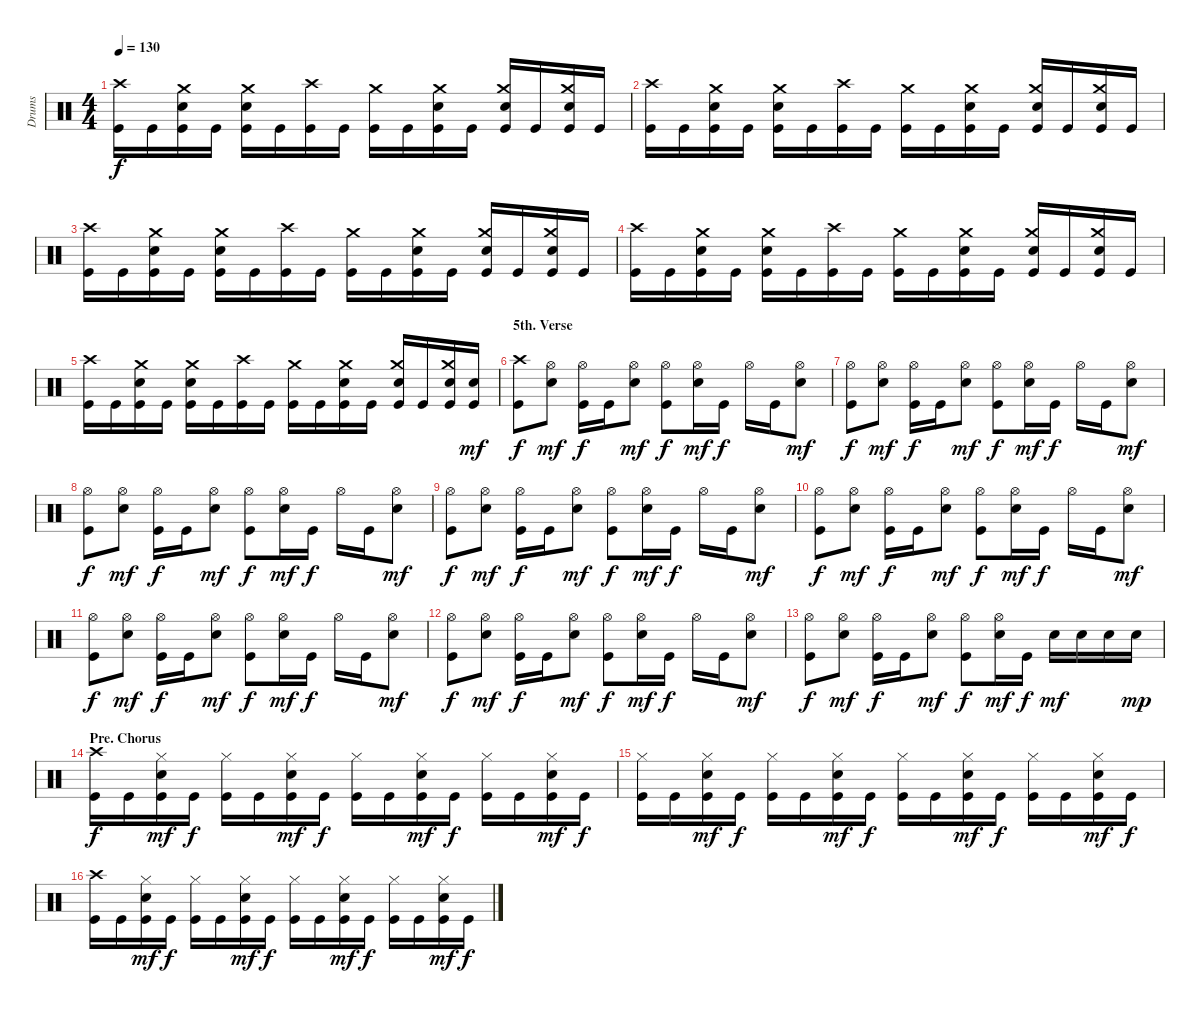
\track ("Drums" "Drums") {instrument percussion}
\staff {score}
\articulation defaults
\ts (4 4)
\tempo 130
\clef neutral
\ks c
("Crash high (hit)" "Kick (hit)").16{dy f} "Kick (hit)".16 ("Crash medium (hit)" "Snare (hit) 2" "Kick (hit)").16 "Kick (hit)".16 ("Crash medium (hit)" "Snare (hit) 2" "Kick (hit)").16 "Kick (hit)".16 ("Crash high (hit)" "Kick (hit)").16 "Kick (hit)".16 ("Crash medium (hit)" "Kick (hit)").16 "Kick (hit)".16 ("Crash medium (hit)" "Snare (hit) 2" "Kick (hit)").16 "Kick (hit)".16 ("Crash medium (hit)" "Snare (hit) 2" "Kick (hit)").16 "Kick (hit)".16 ("Crash medium (hit)" "Snare (hit) 2" "Kick (hit)").16 "Kick (hit)".16 |
("Crash high (hit)" "Kick (hit)").16 "Kick (hit)".16 ("Crash medium (hit)" "Snare (hit) 2" "Kick (hit)").16 "Kick (hit)".16 ("Crash medium (hit)" "Snare (hit) 2" "Kick (hit)").16 "Kick (hit)".16 ("Crash high (hit)" "Kick (hit)").16 "Kick (hit)".16 ("Crash medium (hit)" "Kick (hit)").16 "Kick (hit)".16 ("Crash medium (hit)" "Snare (hit) 2" "Kick (hit)").16 "Kick (hit)".16 ("Crash medium (hit)" "Snare (hit) 2" "Kick (hit)").16 "Kick (hit)".16 ("Crash medium (hit)" "Snare (hit) 2" "Kick (hit)").16 "Kick (hit)".16 |
("Crash high (hit)" "Kick (hit)").16 "Kick (hit)".16 ("Crash medium (hit)" "Snare (hit) 2" "Kick (hit)").16 "Kick (hit)".16 ("Crash medium (hit)" "Snare (hit) 2" "Kick (hit)").16 "Kick (hit)".16 ("Crash high (hit)" "Kick (hit)").16 "Kick (hit)".16 ("Crash medium (hit)" "Kick (hit)").16 "Kick (hit)".16 ("Crash medium (hit)" "Snare (hit) 2" "Kick (hit)").16 "Kick (hit)".16 ("Crash medium (hit)" "Snare (hit) 2" "Kick (hit)").16 "Kick (hit)".16 ("Crash medium (hit)" "Snare (hit) 2" "Kick (hit)").16 "Kick (hit)".16 |
("Crash high (hit)" "Kick (hit)").16 "Kick (hit)".16 ("Crash medium (hit)" "Snare (hit) 2" "Kick (hit)").16 "Kick (hit)".16 ("Crash medium (hit)" "Snare (hit) 2" "Kick (hit)").16 "Kick (hit)".16 ("Crash high (hit)" "Kick (hit)").16 "Kick (hit)".16 ("Crash medium (hit)" "Kick (hit)").16 "Kick (hit)".16 ("Crash medium (hit)" "Snare (hit) 2" "Kick (hit)").16 "Kick (hit)".16 ("Crash medium (hit)" "Snare (hit) 2" "Kick (hit)").16 "Kick (hit)".16 ("Crash medium (hit)" "Snare (hit) 2" "Kick (hit)").16 "Kick (hit)".16 |
("Crash high (hit)" "Kick (hit)").16 "Kick (hit)".16 ("Crash medium (hit)" "Snare (hit) 2" "Kick (hit)").16 "Kick (hit)".16 ("Crash medium (hit)" "Snare (hit) 2" "Kick (hit)").16 "Kick (hit)".16 ("Crash high (hit)" "Kick (hit)").16 "Kick (hit)".16 ("Crash medium (hit)" "Kick (hit)").16 "Kick (hit)".16 ("Crash medium (hit)" "Snare (hit) 2" "Kick (hit)").16 "Kick (hit)".16 ("Crash medium (hit)" "Snare (hit) 2" "Kick (hit)").16 "Kick (hit)".16 ("Crash medium (hit)" "Snare (hit) 2" "Kick (hit)").16 ("Snare (hit) 2" "Kick (hit)").16{dy mf} |
\section ("" "5th. Verse")
("Crash high (hit)" "Kick (hit)").8{dy f} ("Hi-Hat (open)" "Snare (hit) 2").8{dy mf} ("Hi-Hat (open)" "Kick (hit)").16{dy f} "Kick (hit)".16 ("Hi-Hat (open)" "Snare (hit) 2").8{dy mf} ("Hi-Hat (open)" "Kick (hit)").8{dy f} ("Hi-Hat (open)" "Snare (hit) 2").16{dy mf} "Kick (hit)".16{dy f} "Hi-Hat (open)".16 "Kick (hit)".16 ("Hi-Hat (open)" "Snare (hit) 2").8{dy mf} |
("Hi-Hat (open)" "Kick (hit)").8{dy f} ("Hi-Hat (open)" "Snare (hit) 2").8{dy mf} ("Hi-Hat (open)" "Kick (hit)").16{dy f} "Kick (hit)".16 ("Hi-Hat (open)" "Snare (hit) 2").8{dy mf} ("Hi-Hat (open)" "Kick (hit)").8{dy f} ("Hi-Hat (open)" "Snare (hit) 2").16{dy mf} "Kick (hit)".16{dy f} "Hi-Hat (open)".16 "Kick (hit)".16 ("Hi-Hat (open)" "Snare (hit) 2").8{dy mf} |
("Hi-Hat (open)" "Kick (hit)").8{dy f} ("Hi-Hat (open)" "Snare (hit) 2").8{dy mf} ("Hi-Hat (open)" "Kick (hit)").16{dy f} "Kick (hit)".16 ("Hi-Hat (open)" "Snare (hit) 2").8{dy mf} ("Hi-Hat (open)" "Kick (hit)").8{dy f} ("Hi-Hat (open)" "Snare (hit) 2").16{dy mf} "Kick (hit)".16{dy f} "Hi-Hat (open)".16 "Kick (hit)".16 ("Hi-Hat (open)" "Snare (hit) 2").8{dy mf} |
("Hi-Hat (open)" "Kick (hit)").8{dy f} ("Hi-Hat (open)" "Snare (hit) 2").8{dy mf} ("Hi-Hat (open)" "Kick (hit)").16{dy f} "Kick (hit)".16 ("Hi-Hat (open)" "Snare (hit) 2").8{dy mf} ("Hi-Hat (open)" "Kick (hit)").8{dy f} ("Hi-Hat (open)" "Snare (hit) 2").16{dy mf} "Kick (hit)".16{dy f} "Hi-Hat (open)".16 "Kick (hit)".16 ("Hi-Hat (open)" "Snare (hit) 2").8{dy mf} |
("Hi-Hat (open)" "Kick (hit)").8{dy f} ("Hi-Hat (open)" "Snare (hit) 2").8{dy mf} ("Hi-Hat (open)" "Kick (hit)").16{dy f} "Kick (hit)".16 ("Hi-Hat (open)" "Snare (hit) 2").8{dy mf} ("Hi-Hat (open)" "Kick (hit)").8{dy f} ("Hi-Hat (open)" "Snare (hit) 2").16{dy mf} "Kick (hit)".16{dy f} "Hi-Hat (open)".16 "Kick (hit)".16 ("Hi-Hat (open)" "Snare (hit) 2").8{dy mf} |
("Hi-Hat (open)" "Kick (hit)").8{dy f} ("Hi-Hat (open)" "Snare (hit) 2").8{dy mf} ("Hi-Hat (open)" "Kick (hit)").16{dy f} "Kick (hit)".16 ("Hi-Hat (open)" "Snare (hit) 2").8{dy mf} ("Hi-Hat (open)" "Kick (hit)").8{dy f} ("Hi-Hat (open)" "Snare (hit) 2").16{dy mf} "Kick (hit)".16{dy f} "Hi-Hat (open)".16 "Kick (hit)".16 ("Hi-Hat (open)" "Snare (hit) 2").8{dy mf} |
("Hi-Hat (open)" "Kick (hit)").8{dy f} ("Hi-Hat (open)" "Snare (hit) 2").8{dy mf} ("Hi-Hat (open)" "Kick (hit)").16{dy f} "Kick (hit)".16 ("Hi-Hat (open)" "Snare (hit) 2").8{dy mf} ("Hi-Hat (open)" "Kick (hit)").8{dy f} ("Hi-Hat (open)" "Snare (hit) 2").16{dy mf} "Kick (hit)".16{dy f} "Hi-Hat (open)".16 "Kick (hit)".16 ("Hi-Hat (open)" "Snare (hit) 2").8{dy mf} |
("Hi-Hat (open)" "Kick (hit)").8{dy f} ("Hi-Hat (open)" "Snare (hit) 2").8{dy mf} ("Hi-Hat (open)" "Kick (hit)").16{dy f} "Kick (hit)".16 ("Hi-Hat (open)" "Snare (hit) 2").8{dy mf} ("Hi-Hat (open)" "Kick (hit)").8{dy f} ("Hi-Hat (open)" "Snare (hit) 2").16{dy mf} "Kick (hit)".16{dy f} "Snare (hit) 2".16{dy mf} "Snare (hit) 2".16 "Snare (hit) 2".16 "Snare (hit) 2".16{dy mp} |
\section ("" "Pre. Chorus")
("Crash high (hit)" "Kick (hit)").16{dy f} "Kick (hit)".16 ("Hi-Hat (closed)" "Snare (hit) 2" "Kick (hit)").16{dy mf} "Kick (hit)".16{dy f} ("Hi-Hat (closed)" "Kick (hit)").16 "Kick (hit)".16 ("Hi-Hat (closed)" "Snare (hit) 2" "Kick (hit)").16{dy mf} "Kick (hit)".16{dy f} ("Hi-Hat (closed)" "Kick (hit)").16 "Kick (hit)".16 ("Hi-Hat (closed)" "Snare (hit) 2" "Kick (hit)").16{dy mf} "Kick (hit)".16{dy f} ("Hi-Hat (closed)" "Kick (hit)").16 "Kick (hit)".16 ("Hi-Hat (closed)" "Snare (hit) 2" "Kick (hit)").16{dy mf} "Kick (hit)".16{dy f} |
("Hi-Hat (closed)" "Kick (hit)").16 "Kick (hit)".16 ("Hi-Hat (closed)" "Snare (hit) 2" "Kick (hit)").16{dy mf} "Kick (hit)".16{dy f} ("Hi-Hat (closed)" "Kick (hit)").16 "Kick (hit)".16 ("Hi-Hat (closed)" "Snare (hit) 2" "Kick (hit)").16{dy mf} "Kick (hit)".16{dy f} ("Hi-Hat (closed)" "Kick (hit)").16 "Kick (hit)".16 ("Hi-Hat (closed)" "Snare (hit) 2" "Kick (hit)").16{dy mf} "Kick (hit)".16{dy f} ("Hi-Hat (closed)" "Kick (hit)").16 "Kick (hit)".16 ("Hi-Hat (closed)" "Snare (hit) 2" "Kick (hit)").16{dy mf} "Kick (hit)".16{dy f} |
("Crash high (hit)" "Kick (hit)").16 "Kick (hit)".16 ("Hi-Hat (closed)" "Snare (hit) 2" "Kick (hit)").16{dy mf} "Kick (hit)".16{dy f} ("Hi-Hat (closed)" "Kick (hit)").16 "Kick (hit)".16 ("Hi-Hat (closed)" "Snare (hit) 2" "Kick (hit)").16{dy mf} "Kick (hit)".16{dy f} ("Hi-Hat (closed)" "Kick (hit)").16 "Kick (hit)".16 ("Hi-Hat (closed)" "Snare (hit) 2" "Kick (hit)").16{dy mf} "Kick (hit)".16{dy f} ("Hi-Hat (closed)" "Kick (hit)").16 "Kick (hit)".16 ("Hi-Hat (closed)" "Snare (hit) 2" "Kick (hit)").16{dy mf} "Kick (hit)".16{dy f}
